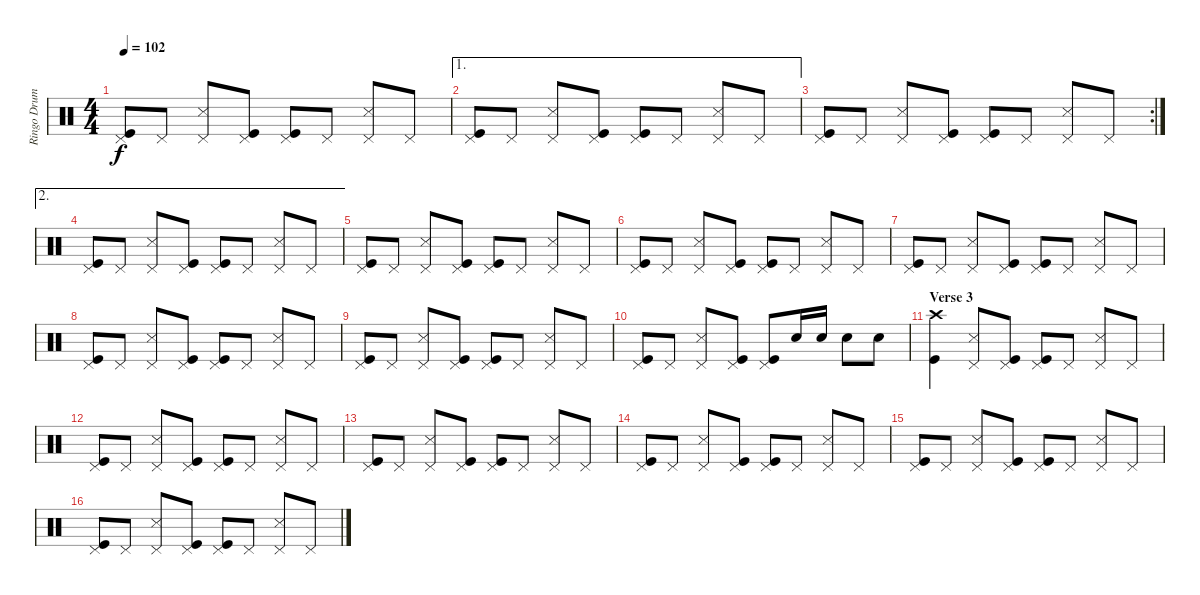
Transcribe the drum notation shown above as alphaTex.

\track ("Ringo Drums" "Ringo Drum") {instrument percussion}
\staff {score}
\articulation defaults
\ts (4 4)
\tempo 102
\clef neutral
\ks c
("Pedal Hi-Hat (hit)" "Kick (hit)").8{dy f} "Pedal Hi-Hat (hit)".8 ("Pedal Hi-Hat (hit)" "Snare (side stick) 3").8 ("Pedal Hi-Hat (hit)" "Kick (hit)").8 ("Pedal Hi-Hat (hit)" "Kick (hit)").8 "Pedal Hi-Hat (hit)".8 ("Pedal Hi-Hat (hit)" "Snare (side stick) 3").8 "Pedal Hi-Hat (hit)".8 |
\ae 1
("Pedal Hi-Hat (hit)" "Kick (hit)").8 "Pedal Hi-Hat (hit)".8 ("Pedal Hi-Hat (hit)" "Snare (side stick) 3").8 ("Pedal Hi-Hat (hit)" "Kick (hit)").8 ("Pedal Hi-Hat (hit)" "Kick (hit)").8 "Pedal Hi-Hat (hit)".8 ("Pedal Hi-Hat (hit)" "Snare (side stick) 3").8 "Pedal Hi-Hat (hit)".8 |
\rc 2
("Pedal Hi-Hat (hit)" "Kick (hit)").8 "Pedal Hi-Hat (hit)".8 ("Pedal Hi-Hat (hit)" "Snare (side stick) 3").8 ("Pedal Hi-Hat (hit)" "Kick (hit)").8 ("Pedal Hi-Hat (hit)" "Kick (hit)").8 "Pedal Hi-Hat (hit)".8 ("Pedal Hi-Hat (hit)" "Snare (side stick) 3").8 "Pedal Hi-Hat (hit)".8 |
\ae 2
("Pedal Hi-Hat (hit)" "Kick (hit)").8 "Pedal Hi-Hat (hit)".8 ("Pedal Hi-Hat (hit)" "Snare (side stick) 3").8 ("Pedal Hi-Hat (hit)" "Kick (hit)").8 ("Pedal Hi-Hat (hit)" "Kick (hit)").8 "Pedal Hi-Hat (hit)".8 ("Pedal Hi-Hat (hit)" "Snare (side stick) 3").8 "Pedal Hi-Hat (hit)".8 |
("Pedal Hi-Hat (hit)" "Kick (hit)").8 "Pedal Hi-Hat (hit)".8 ("Pedal Hi-Hat (hit)" "Snare (side stick) 3").8 ("Pedal Hi-Hat (hit)" "Kick (hit)").8 ("Pedal Hi-Hat (hit)" "Kick (hit)").8 "Pedal Hi-Hat (hit)".8 ("Pedal Hi-Hat (hit)" "Snare (side stick) 3").8 "Pedal Hi-Hat (hit)".8 |
("Pedal Hi-Hat (hit)" "Kick (hit)").8 "Pedal Hi-Hat (hit)".8 ("Pedal Hi-Hat (hit)" "Snare (side stick) 3").8 ("Pedal Hi-Hat (hit)" "Kick (hit)").8 ("Pedal Hi-Hat (hit)" "Kick (hit)").8 "Pedal Hi-Hat (hit)".8 ("Pedal Hi-Hat (hit)" "Snare (side stick) 3").8 "Pedal Hi-Hat (hit)".8 |
("Pedal Hi-Hat (hit)" "Kick (hit)").8 "Pedal Hi-Hat (hit)".8 ("Pedal Hi-Hat (hit)" "Snare (side stick) 3").8 ("Pedal Hi-Hat (hit)" "Kick (hit)").8 ("Pedal Hi-Hat (hit)" "Kick (hit)").8 "Pedal Hi-Hat (hit)".8 ("Pedal Hi-Hat (hit)" "Snare (side stick) 3").8 "Pedal Hi-Hat (hit)".8 |
("Pedal Hi-Hat (hit)" "Kick (hit)").8 "Pedal Hi-Hat (hit)".8 ("Pedal Hi-Hat (hit)" "Snare (side stick) 3").8 ("Pedal Hi-Hat (hit)" "Kick (hit)").8 ("Pedal Hi-Hat (hit)" "Kick (hit)").8 "Pedal Hi-Hat (hit)".8 ("Pedal Hi-Hat (hit)" "Snare (side stick) 3").8 "Pedal Hi-Hat (hit)".8 |
("Pedal Hi-Hat (hit)" "Kick (hit)").8 "Pedal Hi-Hat (hit)".8 ("Pedal Hi-Hat (hit)" "Snare (side stick) 3").8 ("Pedal Hi-Hat (hit)" "Kick (hit)").8 ("Pedal Hi-Hat (hit)" "Kick (hit)").8 "Pedal Hi-Hat (hit)".8 ("Pedal Hi-Hat (hit)" "Snare (side stick) 3").8 "Pedal Hi-Hat (hit)".8 |
("Pedal Hi-Hat (hit)" "Kick (hit)").8 "Pedal Hi-Hat (hit)".8 ("Pedal Hi-Hat (hit)" "Snare (side stick) 3").8 ("Pedal Hi-Hat (hit)" "Kick (hit)").8 ("Pedal Hi-Hat (hit)" "Kick (hit)").8 "Snare (hit) 2".16 "Snare (hit) 2".16 "Snare (hit) 2".8 "Snare (hit) 2".8 |
\section ("" "Verse 3")
("Crash high (hit)" "Kick (hit)").4 ("Pedal Hi-Hat (hit)" "Snare (side stick) 3").8 ("Pedal Hi-Hat (hit)" "Kick (hit)").8 ("Pedal Hi-Hat (hit)" "Kick (hit)").8 "Pedal Hi-Hat (hit)".8 ("Pedal Hi-Hat (hit)" "Snare (side stick) 3").8 "Pedal Hi-Hat (hit)".8 |
("Pedal Hi-Hat (hit)" "Kick (hit)").8 "Pedal Hi-Hat (hit)".8 ("Pedal Hi-Hat (hit)" "Snare (side stick) 3").8 ("Pedal Hi-Hat (hit)" "Kick (hit)").8 ("Pedal Hi-Hat (hit)" "Kick (hit)").8 "Pedal Hi-Hat (hit)".8 ("Pedal Hi-Hat (hit)" "Snare (side stick) 3").8 "Pedal Hi-Hat (hit)".8 |
("Pedal Hi-Hat (hit)" "Kick (hit)").8 "Pedal Hi-Hat (hit)".8 ("Pedal Hi-Hat (hit)" "Snare (side stick) 3").8 ("Pedal Hi-Hat (hit)" "Kick (hit)").8 ("Pedal Hi-Hat (hit)" "Kick (hit)").8 "Pedal Hi-Hat (hit)".8 ("Pedal Hi-Hat (hit)" "Snare (side stick) 3").8 "Pedal Hi-Hat (hit)".8 |
("Pedal Hi-Hat (hit)" "Kick (hit)").8 "Pedal Hi-Hat (hit)".8 ("Pedal Hi-Hat (hit)" "Snare (side stick) 3").8 ("Pedal Hi-Hat (hit)" "Kick (hit)").8 ("Pedal Hi-Hat (hit)" "Kick (hit)").8 "Pedal Hi-Hat (hit)".8 ("Pedal Hi-Hat (hit)" "Snare (side stick) 3").8 "Pedal Hi-Hat (hit)".8 |
("Pedal Hi-Hat (hit)" "Kick (hit)").8 "Pedal Hi-Hat (hit)".8 ("Pedal Hi-Hat (hit)" "Snare (side stick) 3").8 ("Pedal Hi-Hat (hit)" "Kick (hit)").8 ("Pedal Hi-Hat (hit)" "Kick (hit)").8 "Pedal Hi-Hat (hit)".8 ("Pedal Hi-Hat (hit)" "Snare (side stick) 3").8 "Pedal Hi-Hat (hit)".8 |
("Pedal Hi-Hat (hit)" "Kick (hit)").8 "Pedal Hi-Hat (hit)".8 ("Pedal Hi-Hat (hit)" "Snare (side stick) 3").8 ("Pedal Hi-Hat (hit)" "Kick (hit)").8 ("Pedal Hi-Hat (hit)" "Kick (hit)").8 "Pedal Hi-Hat (hit)".8 ("Pedal Hi-Hat (hit)" "Snare (side stick) 3").8 "Pedal Hi-Hat (hit)".8
